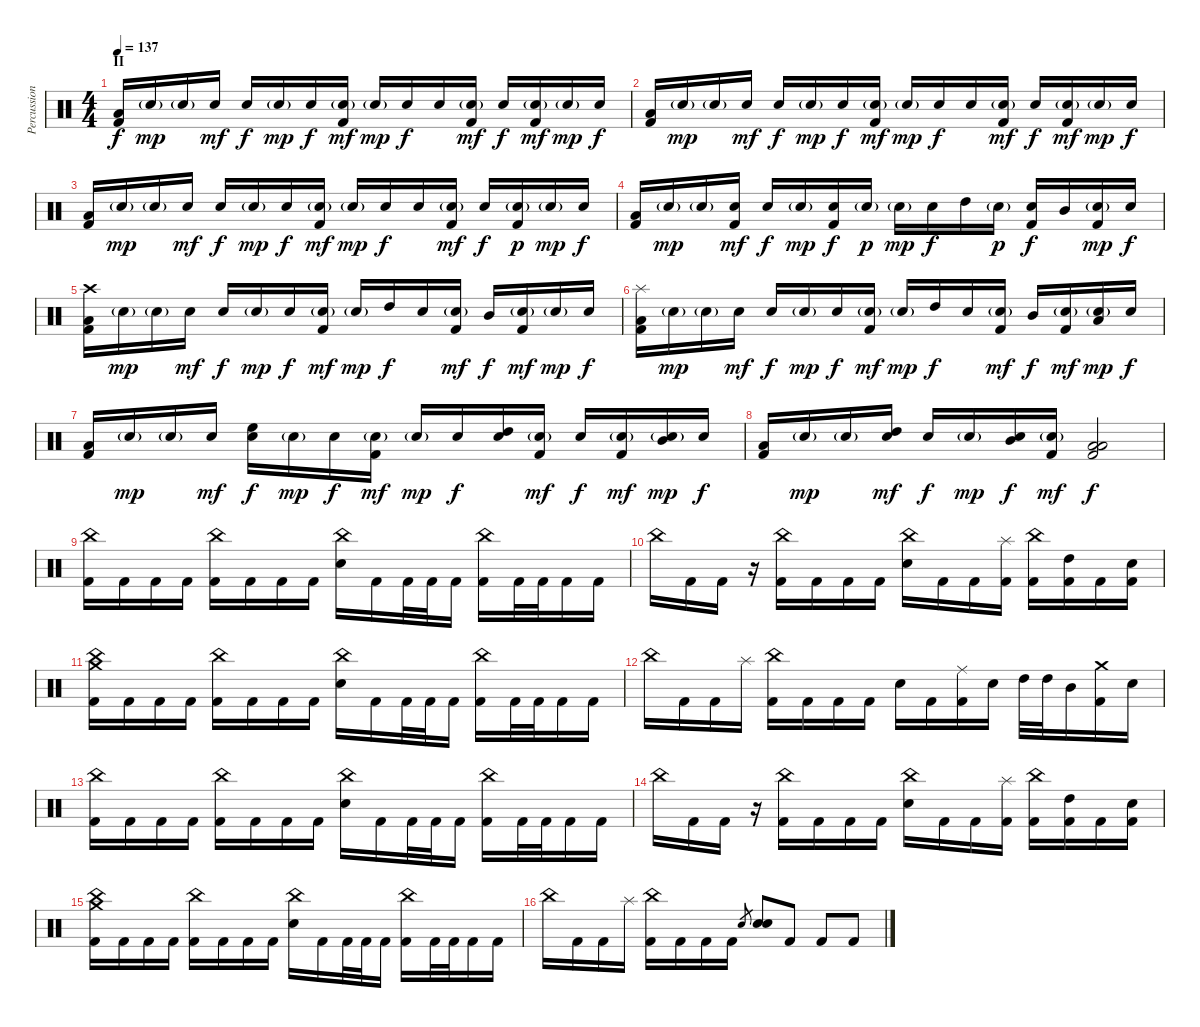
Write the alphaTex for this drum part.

\track ("Percussion" "Percussion") {instrument percussion}
\staff {score}
\articulation defaults
\ts (4 4)
\section ("" "II")
\tempo 137
\clef neutral
\ks c
("Low Tom (hit)" "Kick (hit) 2").16{dy f} "Electric Snare (hit)"{g}.16{dy mp} "Electric Snare (hit)"{g}.16 "Electric Snare (hit)".16{dy mf} "Electric Snare (hit)".16{dy f} "Electric Snare (hit)"{g}.16{dy mp} "Electric Snare (hit)".16{dy f} ("Electric Snare (hit)"{g} "Kick (hit) 2").16{dy mf} "Electric Snare (hit)"{g}.16{dy mp} "Electric Snare (hit)".16{dy f} "Electric Snare (hit)".16 ("Electric Snare (hit)"{g} "Kick (hit) 2").16{dy mf} "Electric Snare (hit)".16{dy f} ("Electric Snare (hit)"{g} "Kick (hit) 2").16{dy mf} "Electric Snare (hit)"{g}.16{dy mp} "Electric Snare (hit)".16{dy f} |
("Low Tom (hit)" "Kick (hit) 2").16 "Electric Snare (hit)"{g}.16{dy mp} "Electric Snare (hit)"{g}.16 "Electric Snare (hit)".16{dy mf} "Electric Snare (hit)".16{dy f} "Electric Snare (hit)"{g}.16{dy mp} "Electric Snare (hit)".16{dy f} ("Electric Snare (hit)"{g} "Kick (hit) 2").16{dy mf} "Electric Snare (hit)"{g}.16{dy mp} "Electric Snare (hit)".16{dy f} "Electric Snare (hit)".16 ("Electric Snare (hit)"{g} "Kick (hit) 2").16{dy mf} "Electric Snare (hit)".16{dy f} ("Electric Snare (hit)"{g} "Kick (hit) 2").16{dy mf} "Electric Snare (hit)"{g}.16{dy mp} "Electric Snare (hit)".16{dy f} |
("Low Tom (hit)" "Kick (hit) 2").16 "Electric Snare (hit)"{g}.16{dy mp} "Electric Snare (hit)"{g}.16 "Electric Snare (hit)".16{dy mf} "Electric Snare (hit)".16{dy f} "Electric Snare (hit)"{g}.16{dy mp} "Electric Snare (hit)".16{dy f} ("Electric Snare (hit)"{g} "Kick (hit) 2").16{dy mf} "Electric Snare (hit)"{g}.16{dy mp} "Electric Snare (hit)".16{dy f} "Electric Snare (hit)".16 ("Electric Snare (hit)"{g} "Kick (hit) 2").16{dy mf} "Electric Snare (hit)".16{dy f} ("Electric Snare (hit)"{g} "Kick (hit) 2").16{dy p} "Electric Snare (hit)"{g}.16{dy mp} "Electric Snare (hit)".16{dy f} |
("Low Tom (hit)" "Kick (hit) 2").16 "Electric Snare (hit)"{g}.16{dy mp} "Electric Snare (hit)"{g}.16 ("Electric Snare (hit)" "Kick (hit) 2").16{dy mf} "Electric Snare (hit)".16{dy f} "Electric Snare (hit)"{g}.16{dy mp} ("Electric Snare (hit)" "Kick (hit) 2").16{dy f} "Electric Snare (hit)"{g}.16{dy p} "Electric Snare (hit)"{g}.16{dy mp} "Electric Snare (hit)".16{dy f} "High Tom (hit)".16 "Electric Snare (hit)"{g}.16{dy p} ("Electric Snare (hit)" "Kick (hit) 2").16{dy f} "Mid Tom (hit)".16 ("Electric Snare (hit)"{g} "Kick (hit) 2").16{dy mp} "Electric Snare (hit)".16{dy f} |
("Crash high (hit)" "Low Tom (hit)" "Kick (hit) 2").16 "Electric Snare (hit)"{g}.16{dy mp} "Electric Snare (hit)"{g}.16 "Electric Snare (hit)".16{dy mf} "Electric Snare (hit)".16{dy f} "Electric Snare (hit)"{g}.16{dy mp} "Electric Snare (hit)".16{dy f} ("Electric Snare (hit)"{g} "Kick (hit) 2").16{dy mf} "Electric Snare (hit)"{g}.16{dy mp} "High Tom (hit)".16{dy f} "Electric Snare (hit)".16 ("Electric Snare (hit)"{g} "Kick (hit) 2").16{dy mf} "Mid Tom (hit)".16{dy f} ("Electric Snare (hit)"{g} "Kick (hit) 2").16{dy mf} "Electric Snare (hit)"{g}.16{dy mp} "Electric Snare (hit)".16{dy f} |
("Splash (hit)" "Low Tom (hit)" "Kick (hit) 2").16 "Electric Snare (hit)"{g}.16{dy mp} "Electric Snare (hit)"{g}.16 "Electric Snare (hit)".16{dy mf} "Electric Snare (hit)".16{dy f} "Electric Snare (hit)"{g}.16{dy mp} "Electric Snare (hit)".16{dy f} ("Electric Snare (hit)"{g} "Kick (hit) 2").16{dy mf} "Electric Snare (hit)"{g}.16{dy mp} "High Tom (hit)".16{dy f} "Electric Snare (hit)".16 ("Electric Snare (hit)"{g} "Kick (hit) 2").16{dy mf} "Mid Tom (hit)".16{dy f} ("Electric Snare (hit)"{g} "Kick (hit) 2").16{dy mf} ("Low Tom (hit)" "Electric Snare (hit)"{g}).16{dy mp} "Electric Snare (hit)".16{dy f} |
("Low Floor Tom (hit)" "Kick (hit) 2").16 "Electric Snare (hit)"{g}.16{dy mp} "Electric Snare (hit)"{g}.16 "Electric Snare (hit)".16{dy mf} ("High Floor Tom (hit)" "Electric Snare (hit)").16{dy f} "Electric Snare (hit)"{g}.16{dy mp} "Electric Snare (hit)".16{dy f} ("Electric Snare (hit)"{g} "Kick (hit) 2").16{dy mf} "Electric Snare (hit)"{g}.16{dy mp} "Electric Snare (hit)".16{dy f} ("High Tom (hit)" "Electric Snare (hit)").16 ("Electric Snare (hit)"{g} "Kick (hit) 2").16{dy mf} "Electric Snare (hit)".16{dy f} ("Electric Snare (hit)"{g} "Kick (hit) 2").16{dy mf} ("Mid Tom (hit)" "Electric Snare (hit)"{g}).16{dy mp} "Electric Snare (hit)".16{dy f} |
("Low Tom (hit)" "Kick (hit) 2").16 "Electric Snare (hit)"{g}.16{dy mp} "Electric Snare (hit)"{g}.16 ("High Tom (hit)" "Electric Snare (hit)").16{dy mf} "Electric Snare (hit)".16{dy f} "Electric Snare (hit)"{g}.16{dy mp} ("Mid Tom (hit)" "Electric Snare (hit)").16{dy f} ("Electric Snare (hit)"{g} "Kick (hit) 2").16{dy mf} ("Low Floor Tom (hit)" "Low Tom (hit)" "Kick (hit) 2").2{dy f} |
("China (hit)" "Kick (hit) 2").16 "Kick (hit) 2".16 "Kick (hit) 2".16 "Kick (hit) 2".16 ("China (hit)" "Kick (hit) 2").16 "Kick (hit) 2".16 "Kick (hit) 2".16 "Kick (hit) 2".16 ("China (hit)" "Electric Snare (hit)").16 "Kick (hit) 2".16 "Kick (hit) 2".32 "Kick (hit) 2".32 "Kick (hit) 2".16 ("China (hit)" "Kick (hit) 2").16 "Kick (hit) 2".32 "Kick (hit) 2".32 "Kick (hit) 2".16 "Kick (hit) 2".16 |
"China (hit)".16 "Kick (hit) 2".16 "Kick (hit) 2".16 r.16 ("China (hit)" "Kick (hit) 2").16 "Kick (hit) 2".16 "Kick (hit) 2".16 "Kick (hit) 2".16 ("China (hit)" "Electric Snare (hit)").16 "Kick (hit) 2".16 "Kick (hit) 2".16 ("Splash (hit)" "Kick (hit) 2").16 ("China (hit)" "Kick (hit) 2").16 ("High Tom (hit)" "Kick (hit) 2").16 "Kick (hit) 2".16 ("Electric Snare (hit)" "Kick (hit) 2").16 |
("China (hit)" "Crash medium (hit)" "Kick (hit) 2").16 "Kick (hit) 2".16 "Kick (hit) 2".16 "Kick (hit) 2".16 ("China (hit)" "Kick (hit) 2").16 "Kick (hit) 2".16 "Kick (hit) 2".16 "Kick (hit) 2".16 ("China (hit)" "Electric Snare (hit)").16 "Kick (hit) 2".16 "Kick (hit) 2".32 "Kick (hit) 2".32 "Kick (hit) 2".16 ("China (hit)" "Kick (hit) 2").16 "Kick (hit) 2".32 "Kick (hit) 2".32 "Kick (hit) 2".16 "Kick (hit) 2".16 |
"China (hit)".16 "Kick (hit) 2".16 "Kick (hit) 2".16 "Splash (hit)".16 ("China (hit)" "Kick (hit) 2").16 "Kick (hit) 2".16 "Kick (hit) 2".16 "Kick (hit) 2".16 "Electric Snare (hit)".16 "Kick (hit) 2".16 ("Ride (middle)" "Kick (hit) 2").16 "Electric Snare (hit)".16 "High Tom (hit)".32 "High Tom (hit)".32 "Mid Tom (hit)".16 ("Crash medium (hit)" "Kick (hit) 2").16 "Electric Snare (hit)".16 |
("China (hit)" "Kick (hit) 2").16 "Kick (hit) 2".16 "Kick (hit) 2".16 "Kick (hit) 2".16 ("China (hit)" "Kick (hit) 2").16 "Kick (hit) 2".16 "Kick (hit) 2".16 "Kick (hit) 2".16 ("China (hit)" "Electric Snare (hit)").16 "Kick (hit) 2".16 "Kick (hit) 2".32 "Kick (hit) 2".32 "Kick (hit) 2".16 ("China (hit)" "Kick (hit) 2").16 "Kick (hit) 2".32 "Kick (hit) 2".32 "Kick (hit) 2".16 "Kick (hit) 2".16 |
"China (hit)".16 "Kick (hit) 2".16 "Kick (hit) 2".16 r.16 ("China (hit)" "Kick (hit) 2").16 "Kick (hit) 2".16 "Kick (hit) 2".16 "Kick (hit) 2".16 ("China (hit)" "Electric Snare (hit)").16 "Kick (hit) 2".16 "Kick (hit) 2".16 ("Splash (hit)" "Kick (hit) 2").16 ("China (hit)" "Kick (hit) 2").16 ("High Tom (hit)" "Kick (hit) 2").16 "Kick (hit) 2".16 ("Electric Snare (hit)" "Kick (hit) 2").16 |
("China (hit)" "Crash medium (hit)" "Kick (hit) 2").16 "Kick (hit) 2".16 "Kick (hit) 2".16 "Kick (hit) 2".16 ("China (hit)" "Kick (hit) 2").16 "Kick (hit) 2".16 "Kick (hit) 2".16 "Kick (hit) 2".16 ("China (hit)" "Electric Snare (hit)").16 "Kick (hit) 2".16 "Kick (hit) 2".32 "Kick (hit) 2".32 "Kick (hit) 2".16 ("China (hit)" "Kick (hit) 2").16 "Kick (hit) 2".32 "Kick (hit) 2".32 "Kick (hit) 2".16 "Kick (hit) 2".16 |
"China (hit)".16 "Kick (hit) 2".16 "Kick (hit) 2".16 "Splash (hit)".16 ("China (hit)" "Kick (hit) 2").16 "Kick (hit) 2".16 "Kick (hit) 2".16 "Kick (hit) 2".16 "Electric Snare (hit)"{h}.8{gr} ("Electric Snare (hit)" "Electric Snare (hit)").8 "Kick (hit) 2".8 "Kick (hit) 2".8 "Kick (hit) 2".8
